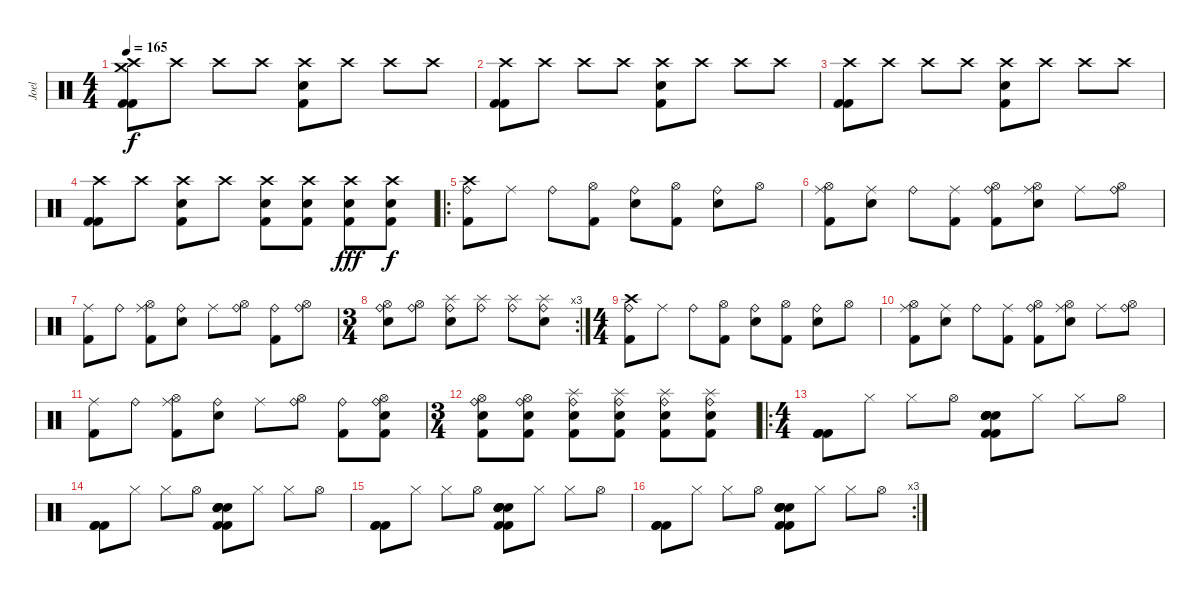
\track ("Joel" "Joel") {instrument percussion}
\staff {score}
\articulation defaults
\ts (4 4)
\tempo 165
\clef neutral
\ks c
("Crash high (hit)" "Crash medium (hit)" "Kick (hit) 2" "Kick (hit) 2").8{dy f} "Crash high (hit)".8 "Crash high (hit)".8 "Crash high (hit)".8 ("Crash high (hit)" "Kick (hit) 2" "Electric Snare (hit)").8 "Crash high (hit)".8 "Crash high (hit)".8 "Crash high (hit)".8 |
("Crash high (hit)" "Kick (hit) 2" "Kick (hit) 2").8 "Crash high (hit)".8 "Crash high (hit)".8 "Crash high (hit)".8 ("Crash high (hit)" "Kick (hit) 2" "Electric Snare (hit)").8 "Crash high (hit)".8 "Crash high (hit)".8 "Crash high (hit)".8 |
("Crash high (hit)" "Kick (hit) 2" "Kick (hit) 2").8 "Crash high (hit)".8 "Crash high (hit)".8 "Crash high (hit)".8 ("Crash high (hit)" "Kick (hit) 2" "Electric Snare (hit)").8 "Crash high (hit)".8 "Crash high (hit)".8 "Crash high (hit)".8 |
("Crash high (hit)" "Kick (hit) 2" "Kick (hit) 2").8 "Crash high (hit)".8 ("Crash high (hit)" "Kick (hit) 2" "Electric Snare (hit)").8 "Crash high (hit)".8 ("Crash high (hit)" "Kick (hit) 2" "Electric Snare (hit)").8 ("Crash high (hit)" "Kick (hit) 2" "Electric Snare (hit)").8 ("Crash high (hit)" "Kick (hit) 2" "Electric Snare (hit)").8{dy fff} ("Crash high (hit)" "Kick (hit) 2" "Electric Snare (hit)").8{dy f} |
\ro
("Crash high (hit)" "Ride (bell)" "Kick (hit) 2").8 "Ride (middle)".8 "Ride (bell)".8 ("Hi-Hat (open)" "Kick (hit) 2").8 ("Ride (bell)" "Electric Snare (hit)").8 ("Hi-Hat (open)" "Kick (hit) 2").8 ("Ride (bell)" "Electric Snare (hit)").8 "Hi-Hat (open)".8 |
("Ride (middle)" "Hi-Hat (open)" "Kick (hit) 2").8 ("Ride (middle)" "Electric Snare (hit)").8 "Ride (bell)".8 ("Ride (middle)" "Kick (hit) 2").8 ("Ride (bell)" "Hi-Hat (open)" "Kick (hit) 2").8 ("Ride (middle)" "Hi-Hat (open)" "Electric Snare (hit)").8 "Ride (middle)".8 ("Ride (bell)" "Hi-Hat (open)").8 |
("Ride (middle)" "Kick (hit) 2").8 "Ride (bell)".8 ("Ride (middle)" "Hi-Hat (open)" "Kick (hit) 2").8 ("Ride (bell)" "Electric Snare (hit)").8 "Ride (middle)".8 ("Ride (bell)" "Hi-Hat (open)").8 ("Ride (bell)" "Kick (hit) 2").8 ("Ride (bell)" "Hi-Hat (open)").8 |
\rc 3
\ts (3 4)
("Ride (bell)" "Hi-Hat (open)" "Electric Snare (hit)").8 ("Ride (bell)" "Hi-Hat (open)").8 ("Ride (bell)" "Splash (hit)" "Electric Snare (hit)").8 ("Ride (bell)" "Splash (hit)").8 ("Ride (bell)" "Splash (hit)").8 ("Ride (bell)" "Splash (hit)" "Electric Snare (hit)").8 |
\ts (4 4)
("Crash high (hit)" "Ride (bell)" "Kick (hit) 2").8 "Ride (middle)".8 "Ride (bell)".8 ("Hi-Hat (open)" "Kick (hit) 2").8 ("Ride (bell)" "Electric Snare (hit)").8 ("Hi-Hat (open)" "Kick (hit) 2").8 ("Ride (bell)" "Electric Snare (hit)").8 "Hi-Hat (open)".8 |
("Ride (middle)" "Hi-Hat (open)" "Kick (hit) 2").8 ("Ride (middle)" "Electric Snare (hit)").8 "Ride (bell)".8 ("Ride (middle)" "Kick (hit) 2").8 ("Ride (bell)" "Hi-Hat (open)" "Kick (hit) 2").8 ("Ride (middle)" "Hi-Hat (open)" "Electric Snare (hit)").8 "Ride (middle)".8 ("Ride (bell)" "Hi-Hat (open)").8 |
("Ride (middle)" "Kick (hit) 2").8 "Ride (bell)".8 ("Ride (middle)" "Hi-Hat (open)" "Kick (hit) 2").8 ("Ride (bell)" "Electric Snare (hit)").8 "Ride (middle)".8 ("Ride (bell)" "Hi-Hat (open)").8 ("Ride (bell)" "Kick (hit) 2").8 ("Ride (bell)" "Hi-Hat (open)" "Kick (hit) 2" "Electric Snare (hit)").8 |
\ts (3 4)
("Ride (bell)" "Hi-Hat (open)" "Kick (hit) 2" "Electric Snare (hit)").8 ("Ride (bell)" "Hi-Hat (open)" "Kick (hit) 2" "Electric Snare (hit)").8 ("Ride (bell)" "Splash (hit)" "Kick (hit) 2" "Electric Snare (hit)").8 ("Ride (bell)" "Splash (hit)" "Kick (hit) 2" "Electric Snare (hit)").8 ("Ride (bell)" "Splash (hit)" "Kick (hit) 2" "Electric Snare (hit)").8 ("Ride (bell)" "Splash (hit)" "Kick (hit) 2" "Electric Snare (hit)").8 |
\ro
\ts (4 4)
("Kick (hit) 2" "Kick (hit) 2" "Kick (hit) 2").8 "Hi-Hat (closed)".8 "Hi-Hat (closed)".8 "Hi-Hat (open)".8 ("Kick (hit) 2" "Electric Snare (hit)" "Electric Snare (hit)" "Kick (hit) 2" "Electric Snare (hit)" "Electric Snare (hit)").8 "Hi-Hat (closed)".8 "Hi-Hat (closed)".8 "Hi-Hat (open)".8 |
("Kick (hit) 2" "Kick (hit) 2" "Kick (hit) 2").8 "Hi-Hat (closed)".8 "Hi-Hat (closed)".8 "Hi-Hat (open)".8 ("Kick (hit) 2" "Electric Snare (hit)" "Electric Snare (hit)" "Kick (hit) 2" "Electric Snare (hit)" "Electric Snare (hit)").8 "Hi-Hat (closed)".8 "Hi-Hat (closed)".8 "Hi-Hat (open)".8 |
("Kick (hit) 2" "Kick (hit) 2" "Kick (hit) 2").8 "Hi-Hat (closed)".8 "Hi-Hat (closed)".8 "Hi-Hat (open)".8 ("Kick (hit) 2" "Electric Snare (hit)" "Electric Snare (hit)" "Kick (hit) 2" "Electric Snare (hit)" "Electric Snare (hit)").8 "Hi-Hat (closed)".8 "Hi-Hat (closed)".8 "Hi-Hat (open)".8 |
\rc 3
("Kick (hit) 2" "Kick (hit) 2" "Kick (hit) 2").8 "Hi-Hat (closed)".8 "Hi-Hat (closed)".8 "Hi-Hat (open)".8 ("Kick (hit) 2" "Electric Snare (hit)" "Electric Snare (hit)" "Kick (hit) 2" "Electric Snare (hit)" "Electric Snare (hit)").8 "Hi-Hat (closed)".8 "Hi-Hat (closed)".8 "Hi-Hat (open)".8
